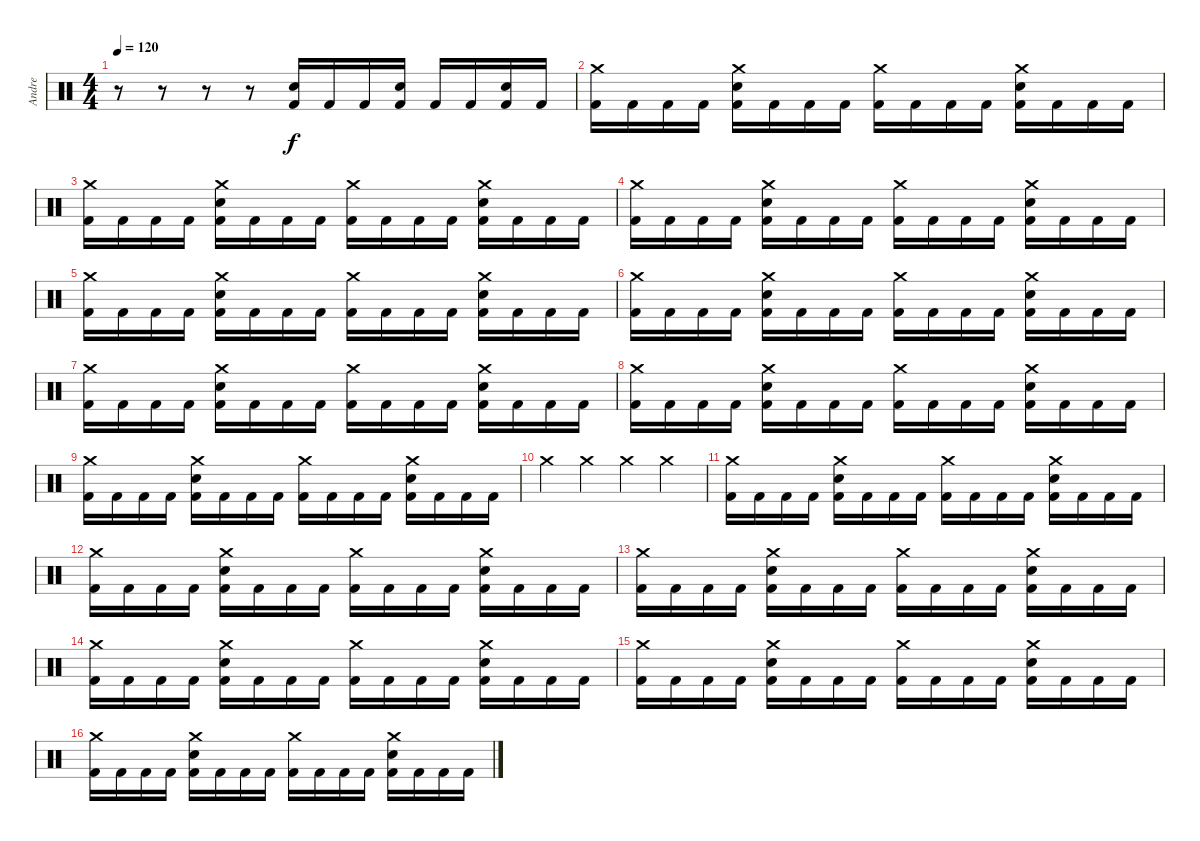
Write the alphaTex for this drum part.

\track ("Andre" "Andre") {instrument percussion}
\staff {score}
\articulation defaults
\ts (4 4)
\tempo 120
\clef neutral
\ks c
r.8{dy f} r.8 r.8 r.8 ("Snare (hit) 2" "Kick (hit) 2").16 "Kick (hit) 2".16 "Kick (hit) 2".16 ("Snare (hit) 2" "Kick (hit) 2").16 "Kick (hit) 2".16 "Kick (hit) 2".16 ("Snare (hit) 2" "Kick (hit) 2").16 "Kick (hit) 2".16 |
("Crash medium (hit)" "Kick (hit) 2").16 "Kick (hit) 2".16 "Kick (hit) 2".16 "Kick (hit) 2".16 ("Crash medium (hit)" "Snare (hit) 2" "Kick (hit) 2").16 "Kick (hit) 2".16 "Kick (hit) 2".16 "Kick (hit) 2".16 ("Crash medium (hit)" "Kick (hit) 2").16 "Kick (hit) 2".16 "Kick (hit) 2".16 "Kick (hit) 2".16 ("Crash medium (hit)" "Snare (hit) 2" "Kick (hit) 2").16 "Kick (hit) 2".16 "Kick (hit) 2".16 "Kick (hit) 2".16 |
("Crash medium (hit)" "Kick (hit) 2").16 "Kick (hit) 2".16 "Kick (hit) 2".16 "Kick (hit) 2".16 ("Crash medium (hit)" "Snare (hit) 2" "Kick (hit) 2").16 "Kick (hit) 2".16 "Kick (hit) 2".16 "Kick (hit) 2".16 ("Crash medium (hit)" "Kick (hit) 2").16 "Kick (hit) 2".16 "Kick (hit) 2".16 "Kick (hit) 2".16 ("Crash medium (hit)" "Snare (hit) 2" "Kick (hit) 2").16 "Kick (hit) 2".16 "Kick (hit) 2".16 "Kick (hit) 2".16 |
("Crash medium (hit)" "Kick (hit) 2").16 "Kick (hit) 2".16 "Kick (hit) 2".16 "Kick (hit) 2".16 ("Crash medium (hit)" "Snare (hit) 2" "Kick (hit) 2").16 "Kick (hit) 2".16 "Kick (hit) 2".16 "Kick (hit) 2".16 ("Crash medium (hit)" "Kick (hit) 2").16 "Kick (hit) 2".16 "Kick (hit) 2".16 "Kick (hit) 2".16 ("Crash medium (hit)" "Snare (hit) 2" "Kick (hit) 2").16 "Kick (hit) 2".16 "Kick (hit) 2".16 "Kick (hit) 2".16 |
("Crash medium (hit)" "Kick (hit) 2").16 "Kick (hit) 2".16 "Kick (hit) 2".16 "Kick (hit) 2".16 ("Crash medium (hit)" "Snare (hit) 2" "Kick (hit) 2").16 "Kick (hit) 2".16 "Kick (hit) 2".16 "Kick (hit) 2".16 ("Crash medium (hit)" "Kick (hit) 2").16 "Kick (hit) 2".16 "Kick (hit) 2".16 "Kick (hit) 2".16 ("Crash medium (hit)" "Snare (hit) 2" "Kick (hit) 2").16 "Kick (hit) 2".16 "Kick (hit) 2".16 "Kick (hit) 2".16 |
("Crash medium (hit)" "Kick (hit) 2").16 "Kick (hit) 2".16 "Kick (hit) 2".16 "Kick (hit) 2".16 ("Crash medium (hit)" "Snare (hit) 2" "Kick (hit) 2").16 "Kick (hit) 2".16 "Kick (hit) 2".16 "Kick (hit) 2".16 ("Crash medium (hit)" "Kick (hit) 2").16 "Kick (hit) 2".16 "Kick (hit) 2".16 "Kick (hit) 2".16 ("Crash medium (hit)" "Snare (hit) 2" "Kick (hit) 2").16 "Kick (hit) 2".16 "Kick (hit) 2".16 "Kick (hit) 2".16 |
("Crash medium (hit)" "Kick (hit) 2").16 "Kick (hit) 2".16 "Kick (hit) 2".16 "Kick (hit) 2".16 ("Crash medium (hit)" "Snare (hit) 2" "Kick (hit) 2").16 "Kick (hit) 2".16 "Kick (hit) 2".16 "Kick (hit) 2".16 ("Crash medium (hit)" "Kick (hit) 2").16 "Kick (hit) 2".16 "Kick (hit) 2".16 "Kick (hit) 2".16 ("Crash medium (hit)" "Snare (hit) 2" "Kick (hit) 2").16 "Kick (hit) 2".16 "Kick (hit) 2".16 "Kick (hit) 2".16 |
("Crash medium (hit)" "Kick (hit) 2").16 "Kick (hit) 2".16 "Kick (hit) 2".16 "Kick (hit) 2".16 ("Crash medium (hit)" "Snare (hit) 2" "Kick (hit) 2").16 "Kick (hit) 2".16 "Kick (hit) 2".16 "Kick (hit) 2".16 ("Crash medium (hit)" "Kick (hit) 2").16 "Kick (hit) 2".16 "Kick (hit) 2".16 "Kick (hit) 2".16 ("Crash medium (hit)" "Snare (hit) 2" "Kick (hit) 2").16 "Kick (hit) 2".16 "Kick (hit) 2".16 "Kick (hit) 2".16 |
("Crash medium (hit)" "Kick (hit) 2").16 "Kick (hit) 2".16 "Kick (hit) 2".16 "Kick (hit) 2".16 ("Crash medium (hit)" "Snare (hit) 2" "Kick (hit) 2").16 "Kick (hit) 2".16 "Kick (hit) 2".16 "Kick (hit) 2".16 ("Crash medium (hit)" "Kick (hit) 2").16 "Kick (hit) 2".16 "Kick (hit) 2".16 "Kick (hit) 2".16 ("Crash medium (hit)" "Snare (hit) 2" "Kick (hit) 2").16 "Kick (hit) 2".16 "Kick (hit) 2".16 "Kick (hit) 2".16 |
"Crash medium (hit)".4 "Crash medium (hit)".4 "Crash medium (hit)".4 "Crash medium (hit)".4 |
("Crash medium (hit)" "Kick (hit) 2").16 "Kick (hit) 2".16 "Kick (hit) 2".16 "Kick (hit) 2".16 ("Crash medium (hit)" "Snare (hit) 2" "Kick (hit) 2").16 "Kick (hit) 2".16 "Kick (hit) 2".16 "Kick (hit) 2".16 ("Crash medium (hit)" "Kick (hit) 2").16 "Kick (hit) 2".16 "Kick (hit) 2".16 "Kick (hit) 2".16 ("Crash medium (hit)" "Snare (hit) 2" "Kick (hit) 2").16 "Kick (hit) 2".16 "Kick (hit) 2".16 "Kick (hit) 2".16 |
("Crash medium (hit)" "Kick (hit) 2").16 "Kick (hit) 2".16 "Kick (hit) 2".16 "Kick (hit) 2".16 ("Crash medium (hit)" "Snare (hit) 2" "Kick (hit) 2").16 "Kick (hit) 2".16 "Kick (hit) 2".16 "Kick (hit) 2".16 ("Crash medium (hit)" "Kick (hit) 2").16 "Kick (hit) 2".16 "Kick (hit) 2".16 "Kick (hit) 2".16 ("Crash medium (hit)" "Snare (hit) 2" "Kick (hit) 2").16 "Kick (hit) 2".16 "Kick (hit) 2".16 "Kick (hit) 2".16 |
("Crash medium (hit)" "Kick (hit) 2").16 "Kick (hit) 2".16 "Kick (hit) 2".16 "Kick (hit) 2".16 ("Crash medium (hit)" "Snare (hit) 2" "Kick (hit) 2").16 "Kick (hit) 2".16 "Kick (hit) 2".16 "Kick (hit) 2".16 ("Crash medium (hit)" "Kick (hit) 2").16 "Kick (hit) 2".16 "Kick (hit) 2".16 "Kick (hit) 2".16 ("Crash medium (hit)" "Snare (hit) 2" "Kick (hit) 2").16 "Kick (hit) 2".16 "Kick (hit) 2".16 "Kick (hit) 2".16 |
("Crash medium (hit)" "Kick (hit) 2").16 "Kick (hit) 2".16 "Kick (hit) 2".16 "Kick (hit) 2".16 ("Crash medium (hit)" "Snare (hit) 2" "Kick (hit) 2").16 "Kick (hit) 2".16 "Kick (hit) 2".16 "Kick (hit) 2".16 ("Crash medium (hit)" "Kick (hit) 2").16 "Kick (hit) 2".16 "Kick (hit) 2".16 "Kick (hit) 2".16 ("Crash medium (hit)" "Snare (hit) 2" "Kick (hit) 2").16 "Kick (hit) 2".16 "Kick (hit) 2".16 "Kick (hit) 2".16 |
("Crash medium (hit)" "Kick (hit) 2").16 "Kick (hit) 2".16 "Kick (hit) 2".16 "Kick (hit) 2".16 ("Crash medium (hit)" "Snare (hit) 2" "Kick (hit) 2").16 "Kick (hit) 2".16 "Kick (hit) 2".16 "Kick (hit) 2".16 ("Crash medium (hit)" "Kick (hit) 2").16 "Kick (hit) 2".16 "Kick (hit) 2".16 "Kick (hit) 2".16 ("Crash medium (hit)" "Snare (hit) 2" "Kick (hit) 2").16 "Kick (hit) 2".16 "Kick (hit) 2".16 "Kick (hit) 2".16 |
("Crash medium (hit)" "Kick (hit) 2").16 "Kick (hit) 2".16 "Kick (hit) 2".16 "Kick (hit) 2".16 ("Crash medium (hit)" "Snare (hit) 2" "Kick (hit) 2").16 "Kick (hit) 2".16 "Kick (hit) 2".16 "Kick (hit) 2".16 ("Crash medium (hit)" "Kick (hit) 2").16 "Kick (hit) 2".16 "Kick (hit) 2".16 "Kick (hit) 2".16 ("Crash medium (hit)" "Snare (hit) 2" "Kick (hit) 2").16 "Kick (hit) 2".16 "Kick (hit) 2".16 "Kick (hit) 2".16
